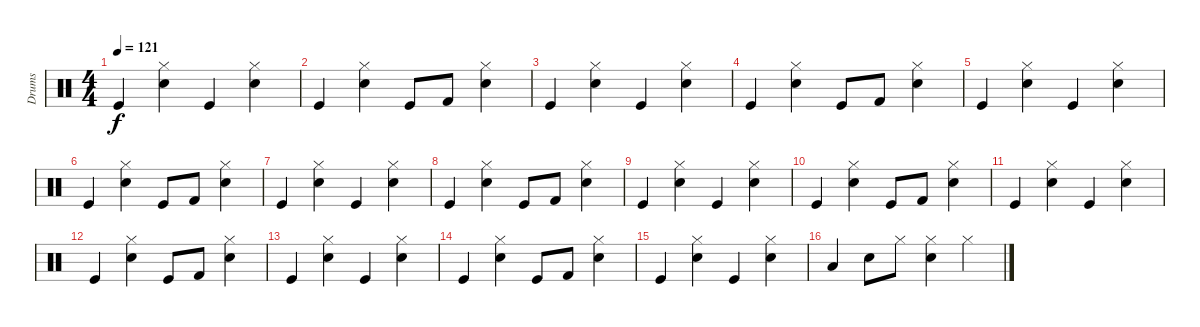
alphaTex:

\track ("Drums" "Drums") {instrument percussion}
\staff {score}
\articulation defaults
\ts (4 4)
\tempo 121
\clef neutral
\ks c "Kick (hit)".4{dy f}
("Hi-Hat (closed)" "Snare (hit) 2").4 "Kick (hit)".4 ("Hi-Hat (closed)" "Snare (hit) 2").4 |
"Kick (hit)".4 ("Hi-Hat (closed)" "Snare (hit) 2").4 "Kick (hit)".8 "Kick (hit) 2".8 ("Hi-Hat (closed)" "Snare (hit) 2").4 |
"Kick (hit)".4 ("Hi-Hat (closed)" "Snare (hit) 2").4 "Kick (hit)".4 ("Hi-Hat (closed)" "Snare (hit) 2").4 |
"Kick (hit)".4 ("Hi-Hat (closed)" "Snare (hit) 2").4 "Kick (hit)".8 "Kick (hit) 2".8 ("Hi-Hat (closed)" "Snare (hit) 2").4 |
"Kick (hit)".4 ("Hi-Hat (closed)" "Snare (hit) 2").4 "Kick (hit)".4 ("Hi-Hat (closed)" "Snare (hit) 2").4 |
"Kick (hit)".4 ("Hi-Hat (closed)" "Snare (hit) 2").4 "Kick (hit)".8 "Kick (hit) 2".8 ("Hi-Hat (closed)" "Snare (hit) 2").4 |
"Kick (hit)".4 ("Hi-Hat (closed)" "Snare (hit) 2").4 "Kick (hit)".4 ("Hi-Hat (closed)" "Snare (hit) 2").4 |
"Kick (hit)".4 ("Hi-Hat (closed)" "Snare (hit) 2").4 "Kick (hit)".8 "Kick (hit) 2".8 ("Hi-Hat (closed)" "Snare (hit) 2").4 |
"Kick (hit)".4 ("Hi-Hat (closed)" "Snare (hit) 2").4 "Kick (hit)".4 ("Hi-Hat (closed)" "Snare (hit) 2").4 |
"Kick (hit)".4 ("Hi-Hat (closed)" "Snare (hit) 2").4 "Kick (hit)".8 "Kick (hit) 2".8 ("Hi-Hat (closed)" "Snare (hit) 2").4 |
"Kick (hit)".4 ("Hi-Hat (closed)" "Snare (hit) 2").4 "Kick (hit)".4 ("Hi-Hat (closed)" "Snare (hit) 2").4 |
"Kick (hit)".4 ("Hi-Hat (closed)" "Snare (hit) 2").4 "Kick (hit)".8 "Kick (hit) 2".8 ("Hi-Hat (closed)" "Snare (hit) 2").4 |
"Kick (hit)".4 ("Hi-Hat (closed)" "Snare (hit) 2").4 "Kick (hit)".4 ("Hi-Hat (closed)" "Snare (hit) 2").4 |
"Kick (hit)".4 ("Hi-Hat (closed)" "Snare (hit) 2").4 "Kick (hit)".8 "Kick (hit) 2".8 ("Hi-Hat (closed)" "Snare (hit) 2").4 |
"Kick (hit)".4 ("Hi-Hat (closed)" "Snare (hit) 2").4 "Kick (hit)".4 ("Hi-Hat (closed)" "Snare (hit) 2").4 |
"Low Floor Tom (hit)".4 "Electric Snare (hit)".8 "Hi-Hat (closed)".8 ("Hi-Hat (closed)" "Snare (hit) 2").4 "Hi-Hat (closed)".4
